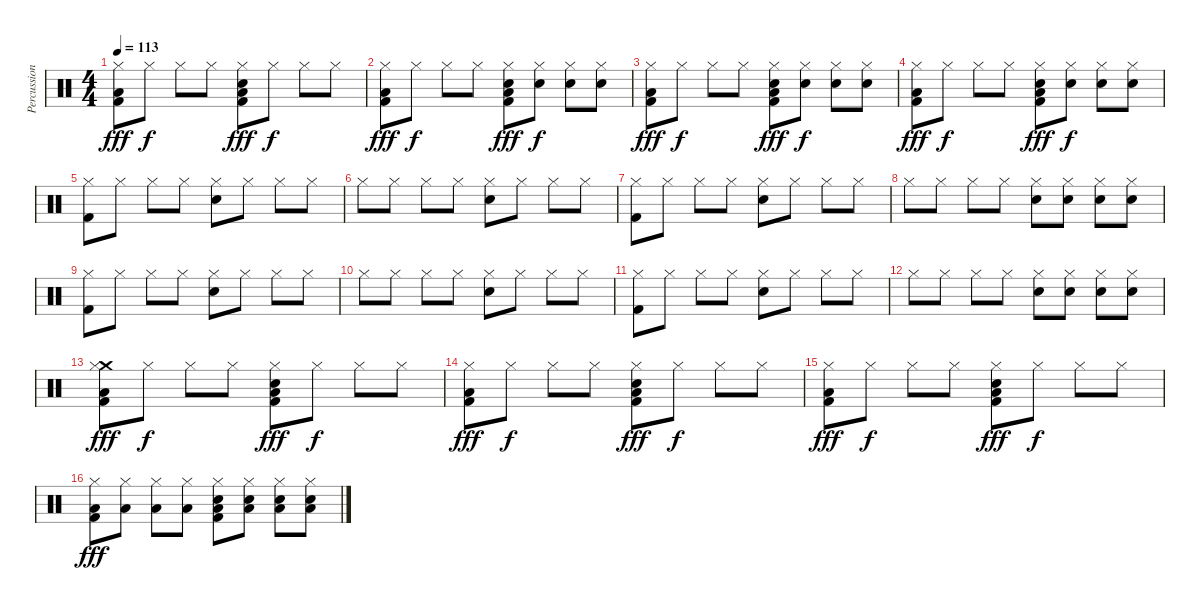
\track ("Percussion" "Percussion") {instrument percussion}
\staff {score}
\articulation defaults
\ts (4 4)
\tempo 113
\clef neutral
\ks c
("Low Floor Tom (hit)" "Hi-Hat (closed)" "Kick (hit) 2").8{dy fff} "Hi-Hat (closed)".8{dy f} "Hi-Hat (closed)".8 "Hi-Hat (closed)".8 ("Low Floor Tom (hit)" "Hi-Hat (closed)" "Electric Snare (hit)" "Kick (hit) 2").8{dy fff} "Hi-Hat (closed)".8{dy f} "Hi-Hat (closed)".8 "Hi-Hat (closed)".8 |
("Low Floor Tom (hit)" "Hi-Hat (closed)" "Kick (hit) 2").8{dy fff} "Hi-Hat (closed)".8{dy f} "Hi-Hat (closed)".8 "Hi-Hat (closed)".8 ("Low Floor Tom (hit)" "Hi-Hat (closed)" "Electric Snare (hit)" "Kick (hit) 2").8{dy fff} ("Snare (hit) 2" "Hi-Hat (closed)").8{dy f} ("Snare (hit) 2" "Hi-Hat (closed)").8 ("Snare (hit) 2" "Hi-Hat (closed)").8 |
("Low Floor Tom (hit)" "Hi-Hat (closed)" "Kick (hit) 2").8{dy fff} "Hi-Hat (closed)".8{dy f} "Hi-Hat (closed)".8 "Hi-Hat (closed)".8 ("Low Floor Tom (hit)" "Hi-Hat (closed)" "Electric Snare (hit)" "Kick (hit) 2").8{dy fff} ("Snare (hit) 2" "Hi-Hat (closed)").8{dy f} ("Snare (hit) 2" "Hi-Hat (closed)").8 ("Snare (hit) 2" "Hi-Hat (closed)").8 |
("Low Floor Tom (hit)" "Hi-Hat (closed)" "Kick (hit) 2").8{dy fff} "Hi-Hat (closed)".8{dy f} "Hi-Hat (closed)".8 "Hi-Hat (closed)".8 ("Low Floor Tom (hit)" "Hi-Hat (closed)" "Electric Snare (hit)" "Kick (hit) 2").8{dy fff} ("Snare (hit) 2" "Hi-Hat (closed)").8{dy f} ("Snare (hit) 2" "Hi-Hat (closed)").8 ("Snare (hit) 2" "Hi-Hat (closed)").8 |
("Hi-Hat (closed)" "Kick (hit) 2").8 "Hi-Hat (closed)".8 "Hi-Hat (closed)".8 "Hi-Hat (closed)".8 ("Hi-Hat (closed)" "Electric Snare (hit)").8 "Hi-Hat (closed)".8 "Hi-Hat (closed)".8 "Hi-Hat (closed)".8 |
"Hi-Hat (closed)".8 "Hi-Hat (closed)".8 "Hi-Hat (closed)".8 "Hi-Hat (closed)".8 ("Hi-Hat (closed)" "Electric Snare (hit)").8 "Hi-Hat (closed)".8 "Hi-Hat (closed)".8 "Hi-Hat (closed)".8 |
("Hi-Hat (closed)" "Kick (hit) 2").8 "Hi-Hat (closed)".8 "Hi-Hat (closed)".8 "Hi-Hat (closed)".8 ("Hi-Hat (closed)" "Electric Snare (hit)").8 "Hi-Hat (closed)".8 "Hi-Hat (closed)".8 "Hi-Hat (closed)".8 |
"Hi-Hat (closed)".8 "Hi-Hat (closed)".8 "Hi-Hat (closed)".8 "Hi-Hat (closed)".8 ("Hi-Hat (closed)" "Electric Snare (hit)").8 ("Snare (hit) 2" "Hi-Hat (closed)").8 ("Snare (hit) 2" "Hi-Hat (closed)").8 ("Snare (hit) 2" "Hi-Hat (closed)").8 |
("Hi-Hat (closed)" "Kick (hit) 2").8 "Hi-Hat (closed)".8 "Hi-Hat (closed)".8 "Hi-Hat (closed)".8 ("Hi-Hat (closed)" "Electric Snare (hit)").8 "Hi-Hat (closed)".8 "Hi-Hat (closed)".8 "Hi-Hat (closed)".8 |
"Hi-Hat (closed)".8 "Hi-Hat (closed)".8 "Hi-Hat (closed)".8 "Hi-Hat (closed)".8 ("Hi-Hat (closed)" "Electric Snare (hit)").8 "Hi-Hat (closed)".8 "Hi-Hat (closed)".8 "Hi-Hat (closed)".8 |
("Hi-Hat (closed)" "Kick (hit) 2").8 "Hi-Hat (closed)".8 "Hi-Hat (closed)".8 "Hi-Hat (closed)".8 ("Hi-Hat (closed)" "Electric Snare (hit)").8 "Hi-Hat (closed)".8 "Hi-Hat (closed)".8 "Hi-Hat (closed)".8 |
"Hi-Hat (closed)".8 "Hi-Hat (closed)".8 "Hi-Hat (closed)".8 "Hi-Hat (closed)".8 ("Hi-Hat (closed)" "Electric Snare (hit)").8 ("Snare (hit) 2" "Hi-Hat (closed)").8 ("Snare (hit) 2" "Hi-Hat (closed)").8 ("Snare (hit) 2" "Hi-Hat (closed)").8 |
("Crash medium (hit)" "Low Floor Tom (hit)" "Hi-Hat (closed)" "Kick (hit) 2").8{dy fff} "Hi-Hat (closed)".8{dy f} "Hi-Hat (closed)".8 "Hi-Hat (closed)".8 ("Low Floor Tom (hit)" "Hi-Hat (closed)" "Electric Snare (hit)" "Kick (hit) 2").8{dy fff} "Hi-Hat (closed)".8{dy f} "Hi-Hat (closed)".8 "Hi-Hat (closed)".8 |
("Low Floor Tom (hit)" "Hi-Hat (closed)" "Kick (hit) 2").8{dy fff} "Hi-Hat (closed)".8{dy f} "Hi-Hat (closed)".8 "Hi-Hat (closed)".8 ("Low Floor Tom (hit)" "Hi-Hat (closed)" "Electric Snare (hit)" "Kick (hit) 2").8{dy fff} "Hi-Hat (closed)".8{dy f} "Hi-Hat (closed)".8 "Hi-Hat (closed)".8 |
("Low Floor Tom (hit)" "Hi-Hat (closed)" "Kick (hit) 2").8{dy fff} "Hi-Hat (closed)".8{dy f} "Hi-Hat (closed)".8 "Hi-Hat (closed)".8 ("Low Floor Tom (hit)" "Hi-Hat (closed)" "Electric Snare (hit)" "Kick (hit) 2").8{dy fff} "Hi-Hat (closed)".8{dy f} "Hi-Hat (closed)".8 "Hi-Hat (closed)".8 |
("Low Floor Tom (hit)" "Hi-Hat (closed)" "Kick (hit) 2").8{dy fff} ("Low Floor Tom (hit)" "Hi-Hat (closed)").8 ("Low Floor Tom (hit)" "Hi-Hat (closed)").8 ("Low Floor Tom (hit)" "Hi-Hat (closed)").8 ("Low Floor Tom (hit)" "Hi-Hat (closed)" "Electric Snare (hit)" "Kick (hit) 2").8 ("Low Floor Tom (hit)" "Snare (hit) 2" "Hi-Hat (closed)").8 ("Low Floor Tom (hit)" "Snare (hit) 2" "Hi-Hat (closed)").8 ("Low Floor Tom (hit)" "Snare (hit) 2" "Hi-Hat (closed)").8
